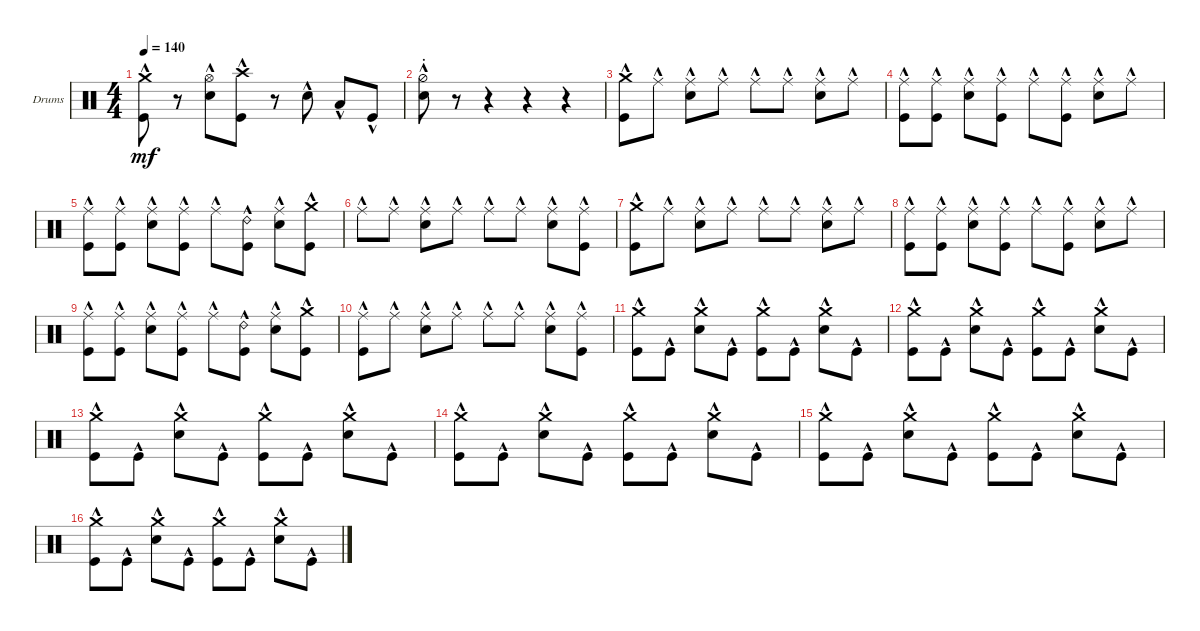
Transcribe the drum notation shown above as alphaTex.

\defaultSystemsLayout 4
\bracketExtendMode groupsimilarinstruments
\firstSystemTrackNameOrientation horizontal
\otherSystemsTrackNameOrientation horizontal
\track ("Drumkit" "Drums") {instrument percussion}
\staff {score}
\articulation defaults
\ts (4 4)
\tempo 140
\clef neutral
\ks c
("Kick (hit)"{hac} "Crash medium (hit)"{hac}).8{dy mf} r.8 ("Hi-Hat (open)"{hac} "Snare (hit) 2"{hac}).8 ("Kick (hit)"{hac} "Crash high (hit)"{hac}).8 r.8 "Snare (hit) 2"{hac}.8 "Low Tom (hit)"{hac}.8 "Kick (hit)"{hac}.8 |
("Snare (hit) 2"{hac} "Hi-Hat (half)"{hac st}).8 r.8 r.4 r.4 r.4 |
("Kick (hit)"{hac} "Crash medium (hit)"{hac}).8 "Ride (middle)"{hac}.8 ("Ride (middle)"{hac} "Snare (hit) 2"{hac}).8 "Ride (middle)"{hac}.8 "Ride (middle)"{hac}.8 "Ride (middle)"{hac}.8 ("Ride (middle)"{hac} "Snare (hit) 2"{hac}).8 "Ride (middle)"{hac}.8 |
("Kick (hit)"{hac} "Ride (middle)"{hac}).8 ("Ride (middle)"{hac} "Kick (hit)"{hac}).8 ("Ride (middle)"{hac} "Snare (hit) 2"{hac}).8 ("Ride (middle)"{hac} "Kick (hit)"{hac}).8 "Ride (middle)"{hac}.8 ("Ride (middle)"{hac} "Kick (hit)"{hac}).8 ("Ride (middle)"{hac} "Snare (hit) 2"{hac}).8 "Ride (middle)"{hac}.8 |
("Kick (hit)"{hac} "Ride (middle)"{hac}).8 ("Ride (middle)"{hac} "Kick (hit)"{hac}).8 ("Ride (middle)"{hac} "Snare (hit) 2"{hac}).8 ("Ride (middle)"{hac} "Kick (hit)"{hac}).8 "Ride (middle)"{hac}.8 ("Ride (bell) 2"{hac} "Kick (hit)"{hac}).8 ("Ride (middle)"{hac} "Snare (hit) 2"{hac}).8 ("Kick (hit)"{hac} "Crash medium (hit)"{hac}).8 |
"Ride (middle)"{hac}.8 "Ride (middle)"{hac}.8 ("Ride (middle)"{hac} "Snare (hit) 2"{hac}).8 "Ride (middle)"{hac}.8 "Ride (middle)"{hac}.8 "Ride (middle)"{hac}.8 ("Ride (middle)"{hac} "Snare (hit) 2"{hac}).8 ("Ride (middle)"{hac} "Kick (hit)"{hac}).8 |
("Kick (hit)"{hac} "Crash medium (hit)"{hac}).8 "Ride (middle)"{hac}.8 ("Ride (middle)"{hac} "Snare (hit) 2"{hac}).8 "Ride (middle)"{hac}.8 "Ride (middle)"{hac}.8 "Ride (middle)"{hac}.8 ("Ride (middle)"{hac} "Snare (hit) 2"{hac}).8 "Ride (middle)"{hac}.8 |
("Kick (hit)"{hac} "Ride (middle)"{hac}).8 ("Ride (middle)"{hac} "Kick (hit)"{hac}).8 ("Ride (middle)"{hac} "Snare (hit) 2"{hac}).8 ("Ride (middle)"{hac} "Kick (hit)"{hac}).8 "Ride (middle)"{hac}.8 ("Ride (middle)"{hac} "Kick (hit)"{hac}).8 ("Ride (middle)"{hac} "Snare (hit) 2"{hac}).8 "Ride (middle)"{hac}.8 |
("Kick (hit)"{hac} "Ride (middle)"{hac}).8 ("Ride (middle)"{hac} "Kick (hit)"{hac}).8 ("Ride (middle)"{hac} "Snare (hit) 2"{hac}).8 ("Ride (middle)"{hac} "Kick (hit)"{hac}).8 "Ride (middle)"{hac}.8 ("Ride (bell) 2"{hac} "Kick (hit)"{hac}).8 ("Ride (middle)"{hac} "Snare (hit) 2"{hac}).8 ("Kick (hit)"{hac} "Crash medium (hit)"{hac}).8 |
("Kick (hit)"{hac} "Ride (middle)"{hac}).8 "Ride (middle)"{hac}.8 ("Ride (middle)"{hac} "Snare (hit) 2"{hac}).8 "Ride (middle)"{hac}.8 "Ride (middle)"{hac}.8 "Ride (middle)"{hac}.8 ("Ride (middle)"{hac} "Snare (hit) 2"{hac}).8 ("Ride (middle)"{hac} "Kick (hit)"{hac}).8 |
("Kick (hit)"{hac} "Crash medium (hit)"{hac}).8 "Kick (hit)"{hac}.8 ("Snare (hit) 2"{hac} "Crash medium (hit)"{hac}).8 "Kick (hit)"{hac}.8 ("Kick (hit)"{hac} "Crash medium (hit)"{hac}).8 "Kick (hit)"{hac}.8 ("Snare (hit) 2"{hac} "Crash medium (hit)"{hac}).8 "Kick (hit)"{hac}.8 |
("Kick (hit)"{hac} "Crash medium (hit)"{hac}).8 "Kick (hit)"{hac}.8 ("Snare (hit) 2"{hac} "Crash medium (hit)"{hac}).8 "Kick (hit)"{hac}.8 ("Kick (hit)"{hac} "Crash medium (hit)"{hac}).8 "Kick (hit)"{hac}.8 ("Snare (hit) 2"{hac} "Crash medium (hit)"{hac}).8 "Kick (hit)"{hac}.8 |
("Kick (hit)"{hac} "Crash medium (hit)"{hac}).8 "Kick (hit)"{hac}.8 ("Snare (hit) 2"{hac} "Crash medium (hit)"{hac}).8 "Kick (hit)"{hac}.8 ("Kick (hit)"{hac} "Crash medium (hit)"{hac}).8 "Kick (hit)"{hac}.8 ("Snare (hit) 2"{hac} "Crash medium (hit)"{hac}).8 "Kick (hit)"{hac}.8 |
("Kick (hit)"{hac} "Crash medium (hit)"{hac}).8 "Kick (hit)"{hac}.8 ("Snare (hit) 2"{hac} "Crash medium (hit)"{hac}).8 "Kick (hit)"{hac}.8 ("Kick (hit)"{hac} "Crash medium (hit)"{hac}).8 "Kick (hit)"{hac}.8 ("Snare (hit) 2"{hac} "Crash medium (hit)"{hac}).8 "Kick (hit)"{hac}.8 |
("Kick (hit)"{hac} "Crash medium (hit)"{hac}).8 "Kick (hit)"{hac}.8 ("Snare (hit) 2"{hac} "Crash medium (hit)"{hac}).8 "Kick (hit)"{hac}.8 ("Kick (hit)"{hac} "Crash medium (hit)"{hac}).8 "Kick (hit)"{hac}.8 ("Snare (hit) 2"{hac} "Crash medium (hit)"{hac}).8 "Kick (hit)"{hac}.8 |
("Kick (hit)"{hac} "Crash medium (hit)"{hac}).8 "Kick (hit)"{hac}.8 ("Snare (hit) 2"{hac} "Crash medium (hit)"{hac}).8 "Kick (hit)"{hac}.8 ("Kick (hit)"{hac} "Crash medium (hit)"{hac}).8 "Kick (hit)"{hac}.8 ("Snare (hit) 2"{hac} "Crash medium (hit)"{hac}).8 "Kick (hit)"{hac}.8
